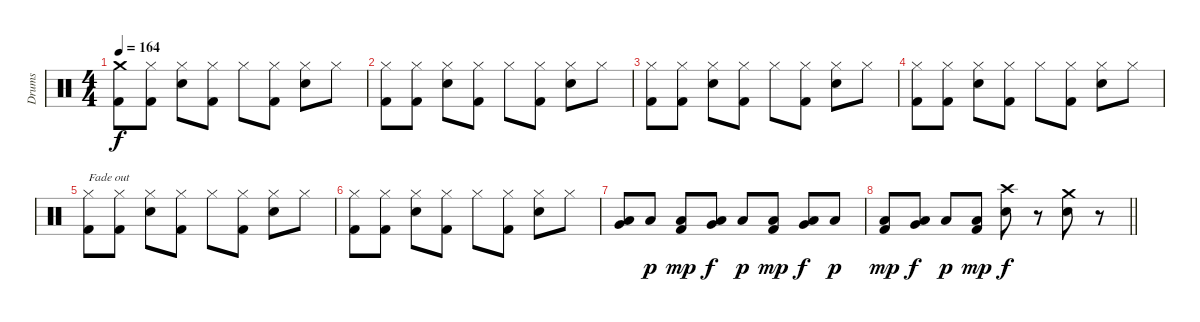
\track ("Drums" "Drums") {instrument percussion}
\staff {score}
\articulation defaults
\ts (4 4)
\tempo 164
\clef neutral
\ks c
("Crash medium (hit)" "Kick (hit) 2").8{dy f} ("Hi-Hat (closed)" "Kick (hit) 2").8 ("Hi-Hat (closed)" "Snare (hit) 2").8 ("Hi-Hat (closed)" "Kick (hit) 2").8 "Hi-Hat (closed)".8 ("Hi-Hat (closed)" "Kick (hit) 2").8 ("Hi-Hat (closed)" "Snare (hit) 2").8 "Hi-Hat (closed)".8 |
("Hi-Hat (closed)" "Kick (hit) 2").8 ("Hi-Hat (closed)" "Kick (hit) 2").8 ("Hi-Hat (closed)" "Snare (hit) 2").8 ("Hi-Hat (closed)" "Kick (hit) 2").8 "Hi-Hat (closed)".8 ("Hi-Hat (closed)" "Kick (hit) 2").8 ("Hi-Hat (closed)" "Snare (hit) 2").8 "Hi-Hat (closed)".8 |
("Hi-Hat (closed)" "Kick (hit) 2").8 ("Hi-Hat (closed)" "Kick (hit) 2").8 ("Hi-Hat (closed)" "Snare (hit) 2").8 ("Hi-Hat (closed)" "Kick (hit) 2").8 "Hi-Hat (closed)".8 ("Hi-Hat (closed)" "Kick (hit) 2").8 ("Hi-Hat (closed)" "Snare (hit) 2").8 "Hi-Hat (closed)".8 |
("Hi-Hat (closed)" "Kick (hit) 2").8 ("Hi-Hat (closed)" "Kick (hit) 2").8 ("Hi-Hat (closed)" "Snare (hit) 2").8 ("Hi-Hat (closed)" "Kick (hit) 2").8 "Hi-Hat (closed)".8 ("Hi-Hat (closed)" "Kick (hit) 2").8 ("Hi-Hat (closed)" "Snare (hit) 2").8 "Hi-Hat (closed)".8 |
("Hi-Hat (closed)" "Kick (hit) 2").8{txt "Fade out"} ("Hi-Hat (closed)" "Kick (hit) 2").8 ("Hi-Hat (closed)" "Snare (hit) 2").8 ("Hi-Hat (closed)" "Kick (hit) 2").8 "Hi-Hat (closed)".8 ("Hi-Hat (closed)" "Kick (hit) 2").8 ("Hi-Hat (closed)" "Snare (hit) 2").8 "Hi-Hat (closed)".8 |
("Hi-Hat (closed)" "Kick (hit) 2").8 ("Hi-Hat (closed)" "Kick (hit) 2").8 ("Hi-Hat (closed)" "Snare (hit) 2").8 ("Hi-Hat (closed)" "Kick (hit) 2").8 "Hi-Hat (closed)".8 ("Hi-Hat (closed)" "Kick (hit) 2").8 ("Hi-Hat (closed)" "Snare (hit) 2").8 "Hi-Hat (closed)".8 |
("Low Tom (hit)" "Very Low Tom (hit)").8 "Low Floor Tom (hit)".8{dy p} ("Low Floor Tom (hit)" "Kick (hit) 2").8{dy mp} ("Low Tom (hit)" "Very Low Tom (hit)").8{dy f} "Low Floor Tom (hit)".8{dy p} ("Low Floor Tom (hit)" "Kick (hit) 2").8{dy mp} ("Low Tom (hit)" "Very Low Tom (hit)").8{dy f} "Low Floor Tom (hit)".8{dy p} |
\barLineRight lightlight
("Low Floor Tom (hit)" "Kick (hit) 2").8{dy mp} ("Low Tom (hit)" "Very Low Tom (hit)").8{dy f} "Low Floor Tom (hit)".8{dy p} ("Low Floor Tom (hit)" "Kick (hit) 2").8{dy mp} ("Crash high (hit)" "Snare (hit) 2").8{dy f} r.8 ("Crash medium (hit)" "Snare (hit) 2").8 r.8
